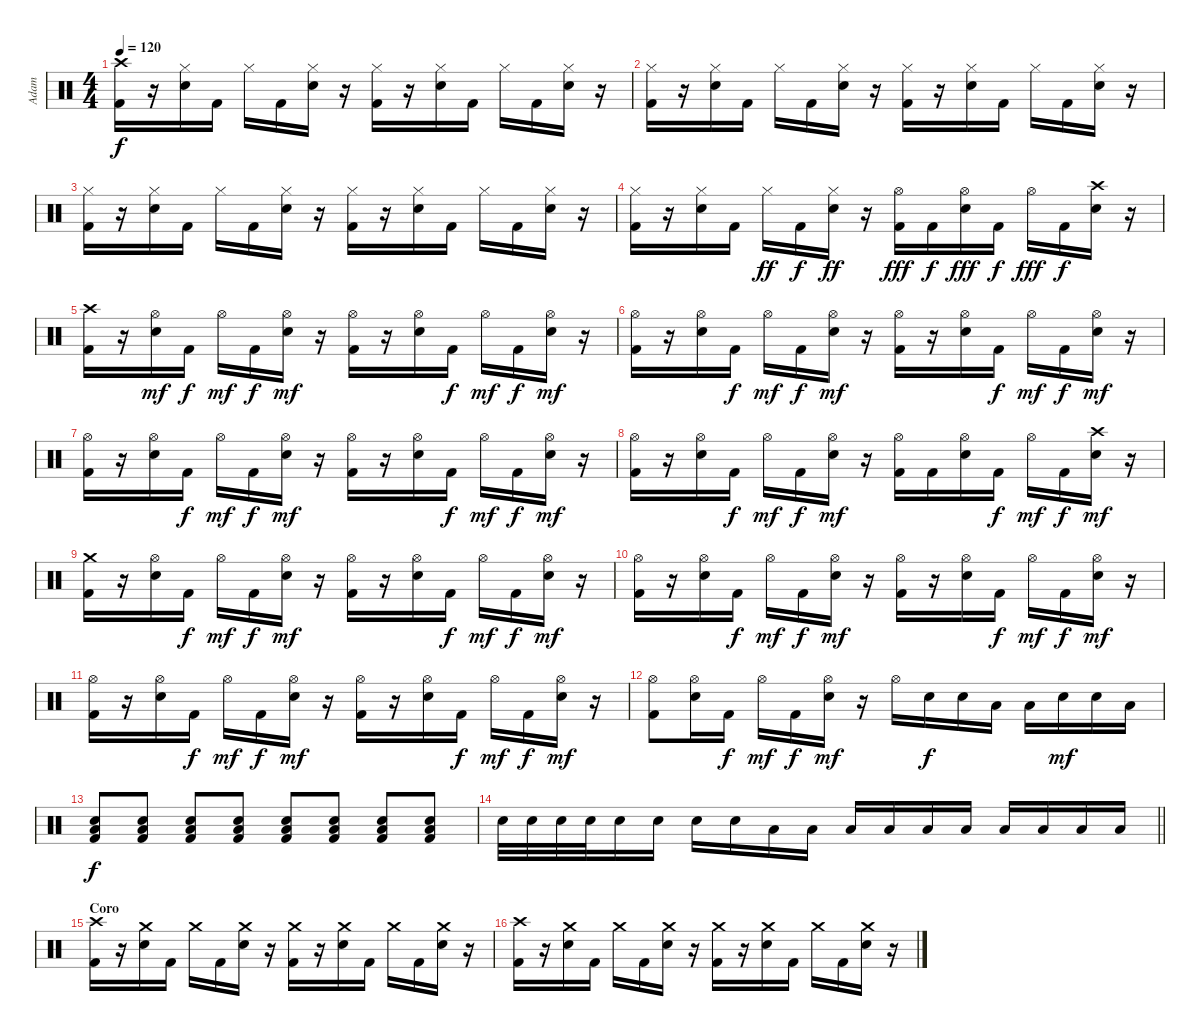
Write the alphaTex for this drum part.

\track ("Adam" "Adam") {instrument percussion}
\staff {score}
\articulation defaults
\ts (4 4)
\tempo 120
\clef neutral
\ks c
("Crash high (hit)" "Kick (hit) 2").16{dy f} r.16 ("Hi-Hat (closed)" "Snare (hit) 2").16 "Kick (hit) 2".16 "Hi-Hat (closed)".16 "Kick (hit) 2".16 ("Hi-Hat (closed)" "Snare (hit) 2").16 r.16 ("Hi-Hat (closed)" "Kick (hit) 2").16 r.16 ("Hi-Hat (closed)" "Snare (hit) 2").16 "Kick (hit) 2".16 "Hi-Hat (closed)".16 "Kick (hit) 2".16 ("Hi-Hat (closed)" "Snare (hit) 2").16 r.16 |
("Hi-Hat (closed)" "Kick (hit) 2").16 r.16 ("Hi-Hat (closed)" "Snare (hit) 2").16 "Kick (hit) 2".16 "Hi-Hat (closed)".16 "Kick (hit) 2".16 ("Hi-Hat (closed)" "Snare (hit) 2").16 r.16 ("Hi-Hat (closed)" "Kick (hit) 2").16 r.16 ("Hi-Hat (closed)" "Snare (hit) 2").16 "Kick (hit) 2".16 "Hi-Hat (closed)".16 "Kick (hit) 2".16 ("Hi-Hat (closed)" "Snare (hit) 2").16 r.16 |
("Hi-Hat (closed)" "Kick (hit) 2").16 r.16 ("Hi-Hat (closed)" "Snare (hit) 2").16 "Kick (hit) 2".16 "Hi-Hat (closed)".16 "Kick (hit) 2".16 ("Hi-Hat (closed)" "Snare (hit) 2").16 r.16 ("Hi-Hat (closed)" "Kick (hit) 2").16 r.16 ("Hi-Hat (closed)" "Snare (hit) 2").16 "Kick (hit) 2".16 "Hi-Hat (closed)".16 "Kick (hit) 2".16 ("Hi-Hat (closed)" "Snare (hit) 2").16 r.16 |
("Hi-Hat (closed)" "Kick (hit) 2").16 r.16 ("Hi-Hat (closed)" "Snare (hit) 2").16 "Kick (hit) 2".16 "Hi-Hat (closed)".16{dy ff} "Kick (hit) 2".16{dy f} ("Hi-Hat (closed)" "Snare (hit) 2").16{dy ff} r.16 ("Hi-Hat (open)" "Kick (hit) 2").16{dy fff} "Kick (hit) 2".16{dy f} ("Hi-Hat (open)" "Snare (hit) 2").16{dy fff} "Kick (hit) 2".16{dy f} "Hi-Hat (open)".16{dy fff} "Kick (hit) 2".16{dy f} ("Crash high (hit)" "Snare (hit) 2").16 r.16 |
("Crash high (hit)" "Kick (hit) 2").16 r.16 ("Hi-Hat (open)" "Snare (hit) 2").16{dy mf} "Kick (hit) 2".16{dy f} "Hi-Hat (open)".16{dy mf} "Kick (hit) 2".16{dy f} ("Hi-Hat (open)" "Snare (hit) 2").16{dy mf} r.16 ("Hi-Hat (open)" "Kick (hit) 2").16 r.16 ("Hi-Hat (open)" "Snare (hit) 2").16 "Kick (hit) 2".16{dy f} "Hi-Hat (open)".16{dy mf} "Kick (hit) 2".16{dy f} ("Hi-Hat (open)" "Snare (hit) 2").16{dy mf} r.16 |
("Hi-Hat (open)" "Kick (hit) 2").16 r.16 ("Hi-Hat (open)" "Snare (hit) 2").16 "Kick (hit) 2".16{dy f} "Hi-Hat (open)".16{dy mf} "Kick (hit) 2".16{dy f} ("Hi-Hat (open)" "Snare (hit) 2").16{dy mf} r.16 ("Hi-Hat (open)" "Kick (hit) 2").16 r.16 ("Hi-Hat (open)" "Snare (hit) 2").16 "Kick (hit) 2".16{dy f} "Hi-Hat (open)".16{dy mf} "Kick (hit) 2".16{dy f} ("Hi-Hat (open)" "Snare (hit) 2").16{dy mf} r.16 |
("Hi-Hat (open)" "Kick (hit) 2").16 r.16 ("Hi-Hat (open)" "Snare (hit) 2").16 "Kick (hit) 2".16{dy f} "Hi-Hat (open)".16{dy mf} "Kick (hit) 2".16{dy f} ("Hi-Hat (open)" "Snare (hit) 2").16{dy mf} r.16 ("Hi-Hat (open)" "Kick (hit) 2").16 r.16 ("Hi-Hat (open)" "Snare (hit) 2").16 "Kick (hit) 2".16{dy f} "Hi-Hat (open)".16{dy mf} "Kick (hit) 2".16{dy f} ("Hi-Hat (open)" "Snare (hit) 2").16{dy mf} r.16 |
("Hi-Hat (open)" "Kick (hit) 2").16 r.16 ("Hi-Hat (open)" "Snare (hit) 2").16 "Kick (hit) 2".16{dy f} "Hi-Hat (open)".16{dy mf} "Kick (hit) 2".16{dy f} ("Hi-Hat (open)" "Snare (hit) 2").16{dy mf} r.16 ("Hi-Hat (open)" "Kick (hit) 2").16 "Kick (hit) 2".16 ("Hi-Hat (open)" "Snare (hit) 2").16 "Kick (hit) 2".16{dy f} "Hi-Hat (open)".16{dy mf} "Kick (hit) 2".16{dy f} ("Crash high (hit)" "Snare (hit) 2").16{dy mf} r.16 |
("Crash medium (hit)" "Kick (hit) 2").16 r.16 ("Hi-Hat (open)" "Snare (hit) 2").16 "Kick (hit) 2".16{dy f} "Hi-Hat (open)".16{dy mf} "Kick (hit) 2".16{dy f} ("Hi-Hat (open)" "Snare (hit) 2").16{dy mf} r.16 ("Hi-Hat (open)" "Kick (hit) 2").16 r.16 ("Hi-Hat (open)" "Snare (hit) 2").16 "Kick (hit) 2".16{dy f} "Hi-Hat (open)".16{dy mf} "Kick (hit) 2".16{dy f} ("Hi-Hat (open)" "Snare (hit) 2").16{dy mf} r.16 |
("Hi-Hat (open)" "Kick (hit) 2").16 r.16 ("Hi-Hat (open)" "Snare (hit) 2").16 "Kick (hit) 2".16{dy f} "Hi-Hat (open)".16{dy mf} "Kick (hit) 2".16{dy f} ("Hi-Hat (open)" "Snare (hit) 2").16{dy mf} r.16 ("Hi-Hat (open)" "Kick (hit) 2").16 r.16 ("Hi-Hat (open)" "Snare (hit) 2").16 "Kick (hit) 2".16{dy f} "Hi-Hat (open)".16{dy mf} "Kick (hit) 2".16{dy f} ("Hi-Hat (open)" "Snare (hit) 2").16{dy mf} r.16 |
("Hi-Hat (open)" "Kick (hit) 2").16 r.16 ("Hi-Hat (open)" "Snare (hit) 2").16 "Kick (hit) 2".16{dy f} "Hi-Hat (open)".16{dy mf} "Kick (hit) 2".16{dy f} ("Hi-Hat (open)" "Snare (hit) 2").16{dy mf} r.16 ("Hi-Hat (open)" "Kick (hit) 2").16 r.16 ("Hi-Hat (open)" "Snare (hit) 2").16 "Kick (hit) 2".16{dy f} "Hi-Hat (open)".16{dy mf} "Kick (hit) 2".16{dy f} ("Hi-Hat (open)" "Snare (hit) 2").16{dy mf} r.16 |
("Hi-Hat (open)" "Kick (hit) 2").8 ("Hi-Hat (open)" "Snare (hit) 2").16 "Kick (hit) 2".16{dy f} "Hi-Hat (open)".16{dy mf} "Kick (hit) 2".16{dy f} ("Hi-Hat (open)" "Snare (hit) 2").16{dy mf} r.16 "Hi-Hat (open)".16 "Snare (hit) 2".16{dy f} "Snare (hit) 2".16 "Low Floor Tom (hit)".16 "Low Floor Tom (hit)".16 "Snare (hit) 2".16{dy mf} "Snare (hit) 2".16 "Low Floor Tom (hit)".16 |
("Low Floor Tom (hit)" "Snare (hit) 2" "Kick (hit) 2").8{dy f} ("Low Floor Tom (hit)" "Snare (hit) 2" "Kick (hit) 2").8 ("Low Floor Tom (hit)" "Snare (hit) 2" "Kick (hit) 2").8 ("Low Floor Tom (hit)" "Snare (hit) 2" "Kick (hit) 2").8 ("Low Floor Tom (hit)" "Snare (hit) 2" "Kick (hit) 2").8 ("Low Floor Tom (hit)" "Snare (hit) 2" "Kick (hit) 2").8 ("Low Floor Tom (hit)" "Snare (hit) 2" "Kick (hit) 2").8 ("Low Floor Tom (hit)" "Snare (hit) 2" "Kick (hit) 2").8 |
\barLineRight lightlight "Snare (hit) 2".32 "Snare (hit) 2".32 "Snare (hit) 2".32 "Snare (hit) 2".32 "Snare (hit) 2".16 "Snare (hit) 2".16 "Snare (hit) 2".16 "Snare (hit) 2".16 "Low Tom (hit)".16 "Low Tom (hit)".16 "Low Tom (hit)".16 "Low Tom (hit)".16 "Low Tom (hit)".16 "Low Floor Tom (hit)".16 "Low Floor Tom (hit)".16 "Low Floor Tom (hit)".16 "Low Floor Tom (hit)".16 "Low Floor Tom (hit)".16
|
\section ("" "Coro")
("Crash high (hit)" "Kick (hit) 2").16 r.16 ("Crash medium (hit)" "Snare (hit) 2").16 "Kick (hit) 2".16 "Crash medium (hit)".16 "Kick (hit) 2".16 ("Crash medium (hit)" "Snare (hit) 2").16 r.16 ("Crash medium (hit)" "Kick (hit) 2").16 r.16 ("Crash medium (hit)" "Snare (hit) 2").16 "Kick (hit) 2".16 "Crash medium (hit)".16 "Kick (hit) 2".16 ("Crash medium (hit)" "Snare (hit) 2").16 r.16 |
("Crash high (hit)" "Kick (hit) 2").16 r.16 ("Crash medium (hit)" "Snare (hit) 2").16 "Kick (hit) 2".16 "Crash medium (hit)".16 "Kick (hit) 2".16 ("Crash medium (hit)" "Snare (hit) 2").16 r.16 ("Crash medium (hit)" "Kick (hit) 2").16 r.16 ("Crash medium (hit)" "Snare (hit) 2").16 "Kick (hit) 2".16 "Crash medium (hit)".16 "Kick (hit) 2".16 ("Crash medium (hit)" "Snare (hit) 2").16 r.16
